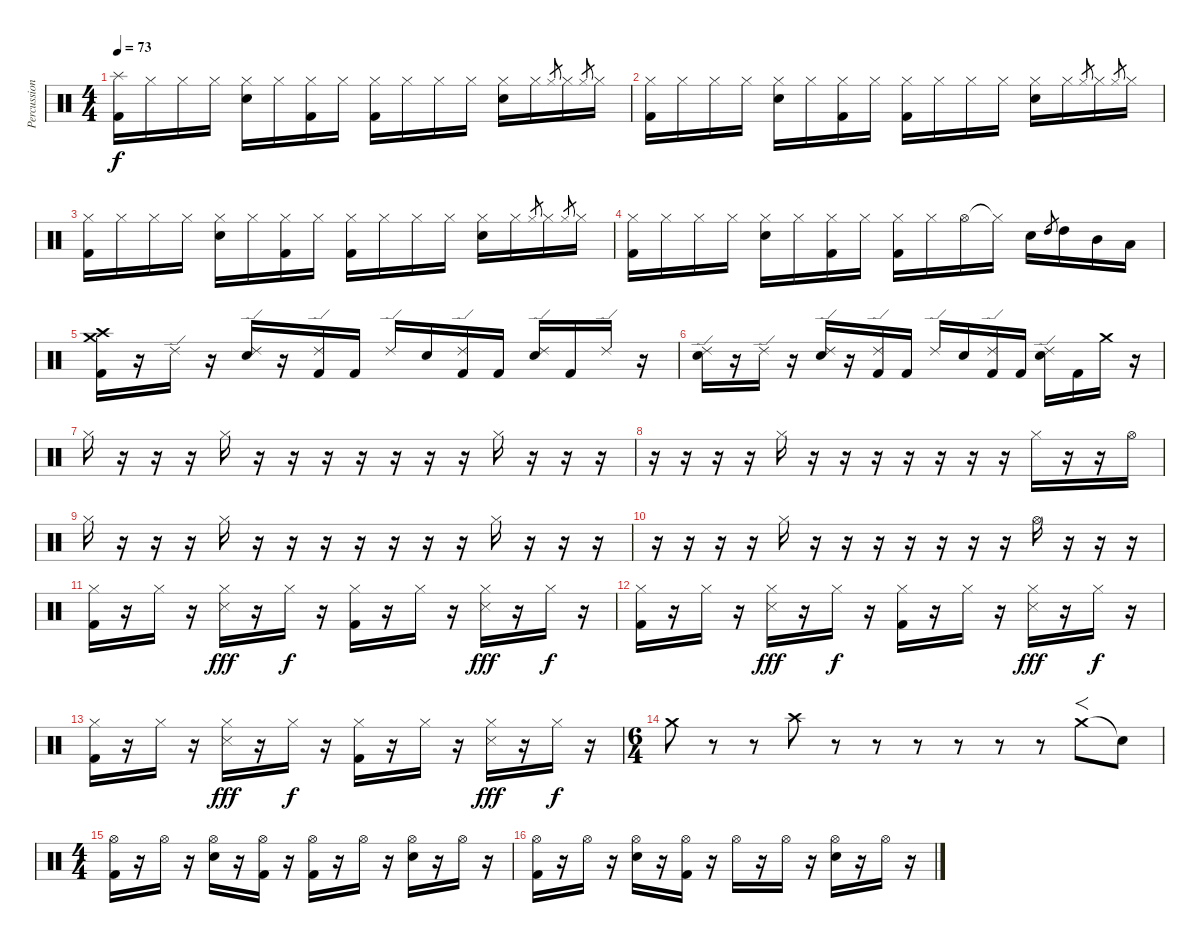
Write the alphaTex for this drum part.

\track ("Percussion" "Percussion") {instrument percussion}
\staff {score}
\articulation defaults
\ts (4 4)
\tempo 73
\clef neutral
\ks c
("Splash (hit)" "Kick (hit) 2").16{dy f} "Hi-Hat (closed)".16 "Hi-Hat (closed)".16 "Hi-Hat (closed)".16 ("Hi-Hat (closed)" "Snare (hit) 2").16 "Hi-Hat (closed)".16 ("Hi-Hat (closed)" "Kick (hit) 2").16 "Hi-Hat (closed)".16 ("Hi-Hat (closed)" "Kick (hit) 2").16 "Hi-Hat (closed)".16 "Hi-Hat (closed)".16 "Hi-Hat (closed)".16 ("Hi-Hat (closed)" "Snare (hit) 2").16 "Hi-Hat (closed)".16 "Hi-Hat (closed)".8{gr} "Hi-Hat (closed)".16 "Hi-Hat (closed)".8{gr} "Hi-Hat (closed)".16 |
("Hi-Hat (closed)" "Kick (hit) 2").16 "Hi-Hat (closed)".16 "Hi-Hat (closed)".16 "Hi-Hat (closed)".16 ("Hi-Hat (closed)" "Snare (hit) 2").16 "Hi-Hat (closed)".16 ("Hi-Hat (closed)" "Kick (hit) 2").16 "Hi-Hat (closed)".16 ("Hi-Hat (closed)" "Kick (hit) 2").16 "Hi-Hat (closed)".16 "Hi-Hat (closed)".16 "Hi-Hat (closed)".16 ("Hi-Hat (closed)" "Snare (hit) 2").16 "Hi-Hat (closed)".16 "Hi-Hat (closed)".8{gr} "Hi-Hat (closed)".16 "Hi-Hat (closed)".8{gr} "Hi-Hat (closed)".16 |
("Hi-Hat (closed)" "Kick (hit) 2").16 "Hi-Hat (closed)".16 "Hi-Hat (closed)".16 "Hi-Hat (closed)".16 ("Hi-Hat (closed)" "Snare (hit) 2").16 "Hi-Hat (closed)".16 ("Hi-Hat (closed)" "Kick (hit) 2").16 "Hi-Hat (closed)".16 ("Hi-Hat (closed)" "Kick (hit) 2").16 "Hi-Hat (closed)".16 "Hi-Hat (closed)".16 "Hi-Hat (closed)".16 ("Hi-Hat (closed)" "Snare (hit) 2").16 "Hi-Hat (closed)".16 "Hi-Hat (closed)".8{gr} "Hi-Hat (closed)".16 "Hi-Hat (closed)".8{gr} "Hi-Hat (closed)".16 |
("Hi-Hat (closed)" "Kick (hit) 2").16 "Hi-Hat (closed)".16 "Hi-Hat (closed)".16 "Hi-Hat (closed)".16 ("Hi-Hat (closed)" "Snare (hit) 2").16 "Hi-Hat (closed)".16 ("Hi-Hat (closed)" "Kick (hit) 2").16 "Hi-Hat (closed)".16 ("Hi-Hat (closed)" "Kick (hit) 2").16 "Hi-Hat (closed)".16 "Hi-Hat (open)".16 "Hi-Hat (closed)"{t}.16 "Snare (hit) 2".16 "High Tom (hit)".8{gr} "High Tom (hit)".16 "Mid Tom (hit)".16 "Low Tom (hit)".16 |
("Crash high (hit)" "Crash medium (hit)" "Kick (hit) 2").16 r.16 "Ride (edge) 2".16 r.16 ("Ride (edge) 2" "Snare (hit) 2").16 r.16 ("Ride (edge) 2" "Kick (hit) 2").16 "Kick (hit) 2".16 "Ride (edge) 2".16 "Snare (hit) 2".16 ("Ride (edge) 2" "Kick (hit) 2").16 "Kick (hit) 2".16 ("Ride (edge) 2" "Snare (hit) 2").16 "Kick (hit) 2".16 "Ride (edge) 2".16 r.16 |
("Ride (edge) 2" "Snare (hit) 2").16 r.16 "Ride (edge) 2".16 r.16 ("Ride (edge) 2" "Snare (hit) 2").16 r.16 ("Ride (edge) 2" "Kick (hit) 2").16 "Kick (hit) 2".16 "Ride (edge) 2".16 "Snare (hit) 2".16 ("Ride (edge) 2" "Kick (hit) 2").16 "Kick (hit) 2".16 ("Ride (edge) 2" "Snare (hit) 2").16 "Kick (hit) 2".16 "Crash medium (hit)".16 r.16 |
"Hi-Hat (closed)".16 r.16 r.16 r.16 "Hi-Hat (closed)".16 r.16 r.16 r.16 r.16 r.16 r.16 r.16 "Hi-Hat (closed)".16 r.16 r.16 r.16 |
r.16 r.16 r.16 r.16 "Hi-Hat (closed)".16 r.16 r.16 r.16 r.16 r.16 r.16 r.16 "Hi-Hat (closed)".16 r.16 r.16 "Hi-Hat (open)".16 |
"Hi-Hat (closed)".16 r.16 r.16 r.16 "Hi-Hat (closed)".16 r.16 r.16 r.16 r.16 r.16 r.16 r.16 "Hi-Hat (closed)".16 r.16 r.16 r.16 |
r.16 r.16 r.16 r.16 "Hi-Hat (closed)".16 r.16 r.16 r.16 r.16 r.16 r.16 r.16 "Hi-Hat (open)".16 r.16 r.16 r.16 |
("Hi-Hat (closed)" "Kick (hit) 2").16 r.16 "Hi-Hat (closed)".16 r.16 ("Hi-Hat (closed)" "Snare (side stick) 3").16{dy fff} r.16 "Hi-Hat (closed)".16{dy f} r.16 ("Hi-Hat (closed)" "Kick (hit) 2").16 r.16 "Hi-Hat (closed)".16 r.16 ("Hi-Hat (closed)" "Snare (side stick) 3").16{dy fff} r.16 "Hi-Hat (closed)".16{dy f} r.16 |
("Hi-Hat (closed)" "Kick (hit) 2").16 r.16 "Hi-Hat (closed)".16 r.16 ("Hi-Hat (closed)" "Snare (side stick) 3").16{dy fff} r.16 "Hi-Hat (closed)".16{dy f} r.16 ("Hi-Hat (closed)" "Kick (hit) 2").16 r.16 "Hi-Hat (closed)".16 r.16 ("Hi-Hat (closed)" "Snare (side stick) 3").16{dy fff} r.16 "Hi-Hat (closed)".16{dy f} r.16 |
("Hi-Hat (closed)" "Kick (hit) 2").16 r.16 "Hi-Hat (closed)".16 r.16 ("Hi-Hat (closed)" "Snare (side stick) 3").16{dy fff} r.16 "Hi-Hat (closed)".16{dy f} r.16 ("Hi-Hat (closed)" "Kick (hit) 2").16 r.16 "Hi-Hat (closed)".16 r.16 ("Hi-Hat (closed)" "Snare (side stick) 3").16{dy fff} r.16 "Hi-Hat (closed)".16{dy f} r.16 |
\ts (6 4)
"Crash medium (hit)".8 r.8 r.8 "Crash high (hit)".8 r.8 r.8 r.8 r.8 r.8 r.8 "Crash medium (hit)".8{f} "Snare (hit)"{t}.8 |
\ts (4 4)
("Hi-Hat (open)" "Kick (hit) 2").16 r.16 "Hi-Hat (open)".16 r.16 ("Hi-Hat (open)" "Snare (hit) 2").16 r.16 ("Hi-Hat (open)" "Kick (hit) 2").16 r.16 ("Hi-Hat (open)" "Kick (hit) 2").16 r.16 "Hi-Hat (open)".16 r.16 ("Hi-Hat (open)" "Snare (hit) 2").16 r.16 "Hi-Hat (open)".16 r.16 |
("Hi-Hat (open)" "Kick (hit) 2").16 r.16 "Hi-Hat (open)".16 r.16 ("Hi-Hat (open)" "Snare (hit) 2").16 r.16 ("Hi-Hat (open)" "Kick (hit) 2").16 r.16 "Hi-Hat (open)".16 r.16 "Hi-Hat (open)".16 r.16 ("Hi-Hat (open)" "Snare (hit) 2").16 r.16 "Hi-Hat (open)".16 r.16
